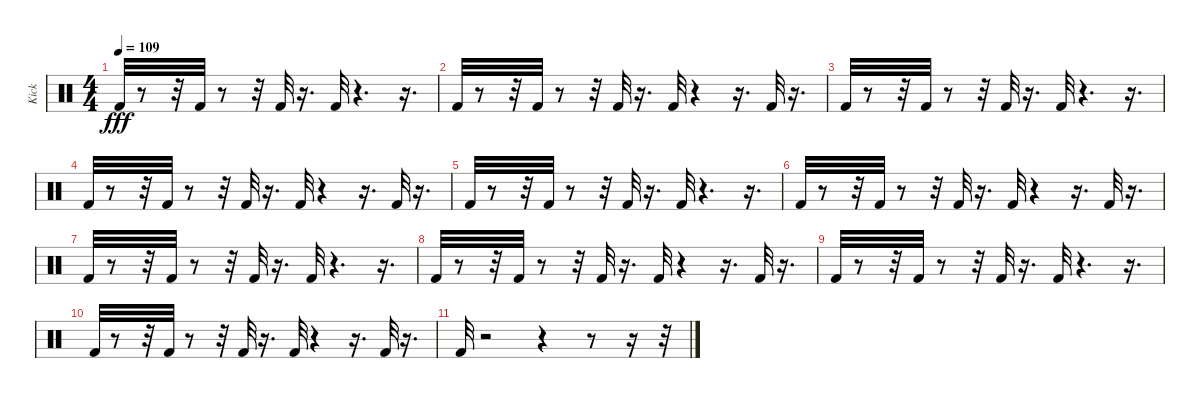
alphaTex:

\track ("Kick" "Kick") {instrument percussion}
\staff {score}
\articulation defaults
\ts (4 4)
\tempo 109
\clef neutral
\ks c "Kick (hit) 2".32{dy fff}
r.8 r.32 "Kick (hit) 2".32 r.8 r.32 "Kick (hit) 2".32 r.16{d} "Kick (hit) 2".32 r.4{d} r.16{d} |
"Kick (hit) 2".32 r.8 r.32 "Kick (hit) 2".32 r.8 r.32 "Kick (hit) 2".32 r.16{d} "Kick (hit) 2".32 r.4 r.16{d} "Kick (hit) 2".32 r.16{d} |
"Kick (hit) 2".32 r.8 r.32 "Kick (hit) 2".32 r.8 r.32 "Kick (hit) 2".32 r.16{d} "Kick (hit) 2".32 r.4{d} r.16{d} |
"Kick (hit) 2".32 r.8 r.32 "Kick (hit) 2".32 r.8 r.32 "Kick (hit) 2".32 r.16{d} "Kick (hit) 2".32 r.4 r.16{d} "Kick (hit) 2".32 r.16{d} |
"Kick (hit) 2".32 r.8 r.32 "Kick (hit) 2".32 r.8 r.32 "Kick (hit) 2".32 r.16{d} "Kick (hit) 2".32 r.4{d} r.16{d} |
"Kick (hit) 2".32 r.8 r.32 "Kick (hit) 2".32 r.8 r.32 "Kick (hit) 2".32 r.16{d} "Kick (hit) 2".32 r.4 r.16{d} "Kick (hit) 2".32 r.16{d} |
"Kick (hit) 2".32 r.8 r.32 "Kick (hit) 2".32 r.8 r.32 "Kick (hit) 2".32 r.16{d} "Kick (hit) 2".32 r.4{d} r.16{d} |
"Kick (hit) 2".32 r.8 r.32 "Kick (hit) 2".32 r.8 r.32 "Kick (hit) 2".32 r.16{d} "Kick (hit) 2".32 r.4 r.16{d} "Kick (hit) 2".32 r.16{d} |
"Kick (hit) 2".32 r.8 r.32 "Kick (hit) 2".32 r.8 r.32 "Kick (hit) 2".32 r.16{d} "Kick (hit) 2".32 r.4{d} r.16{d} |
"Kick (hit) 2".32 r.8 r.32 "Kick (hit) 2".32 r.8 r.32 "Kick (hit) 2".32 r.16{d} "Kick (hit) 2".32 r.4 r.16{d} "Kick (hit) 2".32 r.16{d} |
"Kick (hit) 2".32 r.2 r.4 r.8 r.16 r.32
